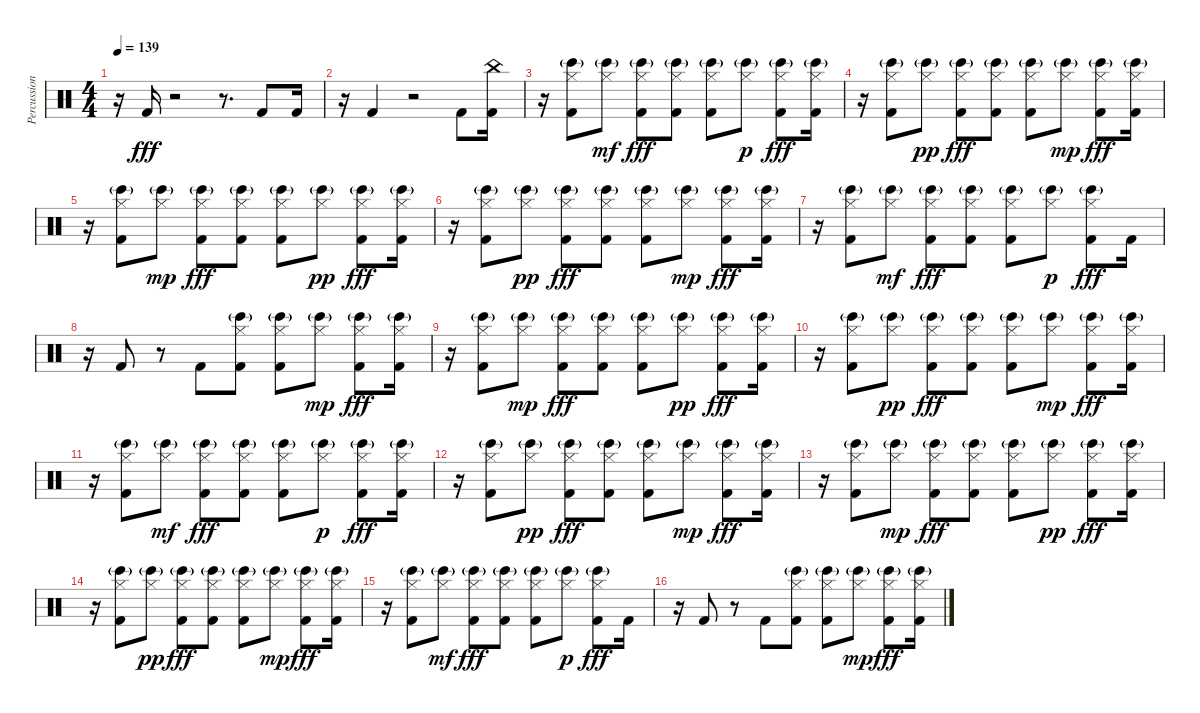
\track ("Percussion" "Percussion") {instrument percussion}
\staff {score}
\articulation defaults
\ts (4 4)
\tempo 139
\clef neutral
\ks c
r.16{dy fff} "Kick (hit) 2".16 r.2 r.8{d} "Kick (hit) 2".8 "Kick (hit) 2".16 |
r.16 "Kick (hit) 2".4 r.2 "Kick (hit) 2".8 ("China (hit)" "Kick (hit) 2").16 |
r.16 ("Hi-Hat (closed)" "Bongo High (hit)"{g} "Kick (hit) 2").8{balance 16} ("Hi-Hat (closed)" "Bongo High (hit)"{g}).8{dy mf balance 0} ("Hi-Hat (closed)" "Bongo High (hit)"{g} "Kick (hit) 2").8{dy fff balance 16} ("Hi-Hat (closed)" "Bongo High (hit)"{g} "Kick (hit) 2").8{balance 0} ("Hi-Hat (closed)" "Bongo High (hit)"{g} "Kick (hit) 2").8{balance 16} ("Hi-Hat (closed)" "Bongo High (hit)"{g}).8{dy p balance 0} ("Hi-Hat (closed)" "Bongo High (hit)"{g} "Kick (hit) 2").8{dy fff balance 16} ("Hi-Hat (closed)" "Bongo High (hit)"{g} "Kick (hit) 2").16{balance 0} |
r.16 ("Hi-Hat (closed)" "Bongo High (hit)"{g} "Kick (hit) 2").8{balance 16} ("Hi-Hat (closed)" "Bongo High (hit)"{g}).8{dy pp balance 0} ("Hi-Hat (closed)" "Bongo High (hit)"{g} "Kick (hit) 2").8{dy fff balance 16} ("Hi-Hat (closed)" "Bongo High (hit)"{g} "Kick (hit) 2").8{balance 0} ("Hi-Hat (closed)" "Bongo High (hit)"{g} "Kick (hit) 2").8{balance 16} ("Hi-Hat (closed)" "Bongo High (hit)"{g}).8{dy mp balance 0} ("Hi-Hat (closed)" "Bongo High (hit)"{g} "Kick (hit) 2").8{dy fff balance 16} ("Hi-Hat (closed)" "Bongo High (hit)"{g} "Kick (hit) 2").16{balance 0} |
r.16 ("Hi-Hat (closed)" "Bongo High (hit)"{g} "Kick (hit) 2").8{balance 16} ("Hi-Hat (closed)" "Bongo High (hit)"{g}).8{dy mp balance 0} ("Hi-Hat (closed)" "Bongo High (hit)"{g} "Kick (hit) 2").8{dy fff balance 16} ("Hi-Hat (closed)" "Bongo High (hit)"{g} "Kick (hit) 2").8{balance 0} ("Hi-Hat (closed)" "Bongo High (hit)"{g} "Kick (hit) 2").8{balance 16} ("Hi-Hat (closed)" "Bongo High (hit)"{g}).8{dy pp balance 0} ("Hi-Hat (closed)" "Bongo High (hit)"{g} "Kick (hit) 2").8{dy fff balance 16} ("Hi-Hat (closed)" "Bongo High (hit)"{g} "Kick (hit) 2").16{balance 0} |
r.16 ("Hi-Hat (closed)" "Bongo High (hit)"{g} "Kick (hit) 2").8{balance 16} ("Hi-Hat (closed)" "Bongo High (hit)"{g}).8{dy pp balance 0} ("Hi-Hat (closed)" "Bongo High (hit)"{g} "Kick (hit) 2").8{dy fff balance 16} ("Hi-Hat (closed)" "Bongo High (hit)"{g} "Kick (hit) 2").8{balance 0} ("Hi-Hat (closed)" "Bongo High (hit)"{g} "Kick (hit) 2").8{balance 16} ("Hi-Hat (closed)" "Bongo High (hit)"{g}).8{dy mp balance 0} ("Hi-Hat (closed)" "Bongo High (hit)"{g} "Kick (hit) 2").8{dy fff balance 16} ("Hi-Hat (closed)" "Bongo High (hit)"{g} "Kick (hit) 2").16{balance 0} |
r.16 ("Hi-Hat (closed)" "Bongo High (hit)"{g} "Kick (hit) 2").8{balance 16} ("Hi-Hat (closed)" "Bongo High (hit)"{g}).8{dy mf balance 0} ("Hi-Hat (closed)" "Bongo High (hit)"{g} "Kick (hit) 2").8{dy fff balance 16} ("Hi-Hat (closed)" "Bongo High (hit)"{g} "Kick (hit) 2").8{balance 0} ("Hi-Hat (closed)" "Bongo High (hit)"{g} "Kick (hit) 2").8{balance 16} ("Hi-Hat (closed)" "Bongo High (hit)"{g}).8{dy p balance 0} ("Hi-Hat (closed)" "Bongo High (hit)"{g} "Kick (hit) 2").8{dy fff balance 16} "Kick (hit) 2".16{balance 0} |
r.16 "Kick (hit) 2".8{balance 16} r.8{balance 0} "Kick (hit) 2".8{balance 16} ("Hi-Hat (closed)" "Bongo High (hit)"{g} "Kick (hit) 2").8{balance 0} ("Hi-Hat (closed)" "Bongo High (hit)"{g} "Kick (hit) 2").8{balance 16} ("Hi-Hat (closed)" "Bongo High (hit)"{g}).8{dy mp balance 0} ("Hi-Hat (closed)" "Bongo High (hit)"{g} "Kick (hit) 2").8{dy fff balance 16} ("Hi-Hat (closed)" "Bongo High (hit)"{g} "Kick (hit) 2").16{balance 0} |
r.16 ("Hi-Hat (closed)" "Bongo High (hit)"{g} "Kick (hit) 2").8{balance 16} ("Hi-Hat (closed)" "Bongo High (hit)"{g}).8{dy mp balance 0} ("Hi-Hat (closed)" "Bongo High (hit)"{g} "Kick (hit) 2").8{dy fff balance 16} ("Hi-Hat (closed)" "Bongo High (hit)"{g} "Kick (hit) 2").8{balance 0} ("Hi-Hat (closed)" "Bongo High (hit)"{g} "Kick (hit) 2").8{balance 16} ("Hi-Hat (closed)" "Bongo High (hit)"{g}).8{dy pp balance 0} ("Hi-Hat (closed)" "Bongo High (hit)"{g} "Kick (hit) 2").8{dy fff balance 16} ("Hi-Hat (closed)" "Bongo High (hit)"{g} "Kick (hit) 2").16{balance 0} |
r.16 ("Hi-Hat (closed)" "Bongo High (hit)"{g} "Kick (hit) 2").8{balance 16} ("Hi-Hat (closed)" "Bongo High (hit)"{g}).8{dy pp balance 0} ("Hi-Hat (closed)" "Bongo High (hit)"{g} "Kick (hit) 2").8{dy fff balance 16} ("Hi-Hat (closed)" "Bongo High (hit)"{g} "Kick (hit) 2").8{balance 0} ("Hi-Hat (closed)" "Bongo High (hit)"{g} "Kick (hit) 2").8{balance 16} ("Hi-Hat (closed)" "Bongo High (hit)"{g}).8{dy mp balance 0} ("Hi-Hat (closed)" "Bongo High (hit)"{g} "Kick (hit) 2").8{dy fff balance 16} ("Hi-Hat (closed)" "Bongo High (hit)"{g} "Kick (hit) 2").16{balance 0} |
r.16 ("Hi-Hat (closed)" "Bongo High (hit)"{g} "Kick (hit) 2").8{balance 16} ("Hi-Hat (closed)" "Bongo High (hit)"{g}).8{dy mf balance 0} ("Hi-Hat (closed)" "Bongo High (hit)"{g} "Kick (hit) 2").8{dy fff balance 16} ("Hi-Hat (closed)" "Bongo High (hit)"{g} "Kick (hit) 2").8{balance 0} ("Hi-Hat (closed)" "Bongo High (hit)"{g} "Kick (hit) 2").8{balance 16} ("Hi-Hat (closed)" "Bongo High (hit)"{g}).8{dy p balance 0} ("Hi-Hat (closed)" "Bongo High (hit)"{g} "Kick (hit) 2").8{dy fff balance 16} ("Hi-Hat (closed)" "Bongo High (hit)"{g} "Kick (hit) 2").16{balance 0} |
r.16 ("Hi-Hat (closed)" "Bongo High (hit)"{g} "Kick (hit) 2").8{balance 16} ("Hi-Hat (closed)" "Bongo High (hit)"{g}).8{dy pp balance 0} ("Hi-Hat (closed)" "Bongo High (hit)"{g} "Kick (hit) 2").8{dy fff balance 16} ("Hi-Hat (closed)" "Bongo High (hit)"{g} "Kick (hit) 2").8{balance 0} ("Hi-Hat (closed)" "Bongo High (hit)"{g} "Kick (hit) 2").8{balance 16} ("Hi-Hat (closed)" "Bongo High (hit)"{g}).8{dy mp balance 0} ("Hi-Hat (closed)" "Bongo High (hit)"{g} "Kick (hit) 2").8{dy fff balance 16} ("Hi-Hat (closed)" "Bongo High (hit)"{g} "Kick (hit) 2").16{balance 0} |
r.16 ("Hi-Hat (closed)" "Bongo High (hit)"{g} "Kick (hit) 2").8{balance 16} ("Hi-Hat (closed)" "Bongo High (hit)"{g}).8{dy mp balance 0} ("Hi-Hat (closed)" "Bongo High (hit)"{g} "Kick (hit) 2").8{dy fff balance 16} ("Hi-Hat (closed)" "Bongo High (hit)"{g} "Kick (hit) 2").8{balance 0} ("Hi-Hat (closed)" "Bongo High (hit)"{g} "Kick (hit) 2").8{balance 16} ("Hi-Hat (closed)" "Bongo High (hit)"{g}).8{dy pp balance 0} ("Hi-Hat (closed)" "Bongo High (hit)"{g} "Kick (hit) 2").8{dy fff balance 16} ("Hi-Hat (closed)" "Bongo High (hit)"{g} "Kick (hit) 2").16{balance 0} |
r.16 ("Hi-Hat (closed)" "Bongo High (hit)"{g} "Kick (hit) 2").8{balance 16} ("Hi-Hat (closed)" "Bongo High (hit)"{g}).8{dy pp balance 0} ("Hi-Hat (closed)" "Bongo High (hit)"{g} "Kick (hit) 2").8{dy fff balance 16} ("Hi-Hat (closed)" "Bongo High (hit)"{g} "Kick (hit) 2").8{balance 0} ("Hi-Hat (closed)" "Bongo High (hit)"{g} "Kick (hit) 2").8{balance 16} ("Hi-Hat (closed)" "Bongo High (hit)"{g}).8{dy mp balance 0} ("Hi-Hat (closed)" "Bongo High (hit)"{g} "Kick (hit) 2").8{dy fff balance 16} ("Hi-Hat (closed)" "Bongo High (hit)"{g} "Kick (hit) 2").16{balance 0} |
r.16 ("Hi-Hat (closed)" "Bongo High (hit)"{g} "Kick (hit) 2").8{balance 16} ("Hi-Hat (closed)" "Bongo High (hit)"{g}).8{dy mf balance 0} ("Hi-Hat (closed)" "Bongo High (hit)"{g} "Kick (hit) 2").8{dy fff balance 16} ("Hi-Hat (closed)" "Bongo High (hit)"{g} "Kick (hit) 2").8{balance 0} ("Hi-Hat (closed)" "Bongo High (hit)"{g} "Kick (hit) 2").8{balance 16} ("Hi-Hat (closed)" "Bongo High (hit)"{g}).8{dy p balance 0} ("Hi-Hat (closed)" "Bongo High (hit)"{g} "Kick (hit) 2").8{dy fff balance 16} "Kick (hit) 2".16{balance 0} |
r.16 "Kick (hit) 2".8{balance 16} r.8{balance 0} "Kick (hit) 2".8{balance 16} ("Hi-Hat (closed)" "Bongo High (hit)"{g} "Kick (hit) 2").8{balance 0} ("Hi-Hat (closed)" "Bongo High (hit)"{g} "Kick (hit) 2").8{balance 16} ("Hi-Hat (closed)" "Bongo High (hit)"{g}).8{dy mp balance 0} ("Hi-Hat (closed)" "Bongo High (hit)"{g} "Kick (hit) 2").8{dy fff balance 16} ("Hi-Hat (closed)" "Bongo High (hit)"{g} "Kick (hit) 2").16{balance 0}
